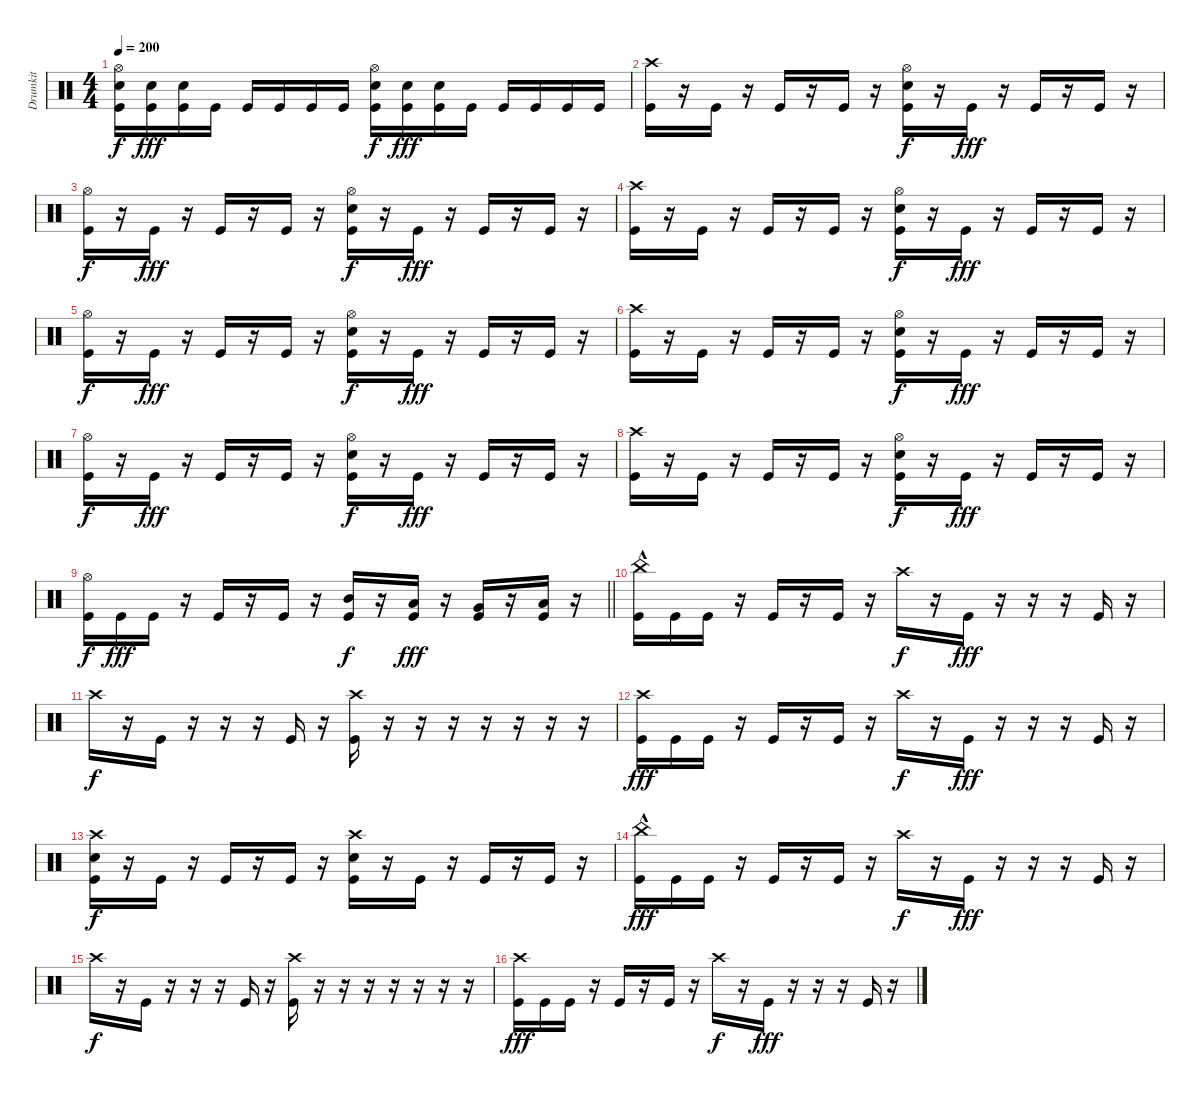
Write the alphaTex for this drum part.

\track ("Drumkit" "Drumkit") {instrument percussion}
\staff {score}
\articulation defaults
\ts (4 4)
\tempo 200
\clef neutral
\ks c
("Hi-Hat (open)" "Snare (hit) 2" "Kick (hit)").16{dy f} ("Snare (hit) 2" "Kick (hit)").16{dy fff} ("Snare (hit) 2" "Kick (hit)").16 "Kick (hit)".16 "Kick (hit)".16 "Kick (hit)".16 "Kick (hit)".16 "Kick (hit)".16 ("Hi-Hat (open)" "Snare (hit) 2" "Kick (hit)").16{dy f} ("Snare (hit) 2" "Kick (hit)").16{dy fff} ("Snare (hit) 2" "Kick (hit)").16 "Kick (hit)".16 "Kick (hit)".16 "Kick (hit)".16 "Kick (hit)".16 "Kick (hit)".16 |
("Crash high (hit)" "Kick (hit)").16 r.16 "Kick (hit)".16 r.16 "Kick (hit)".16 r.16 "Kick (hit)".16 r.16 ("Hi-Hat (open)" "Snare (hit) 2" "Kick (hit)").16{dy f} r.16 "Kick (hit)".16{dy fff} r.16 "Kick (hit)".16 r.16 "Kick (hit)".16 r.16 |
("Hi-Hat (open)" "Kick (hit)").16{dy f} r.16 "Kick (hit)".16{dy fff} r.16 "Kick (hit)".16 r.16 "Kick (hit)".16 r.16 ("Hi-Hat (open)" "Snare (hit) 2" "Kick (hit)").16{dy f} r.16 "Kick (hit)".16{dy fff} r.16 "Kick (hit)".16 r.16 "Kick (hit)".16 r.16 |
("Crash high (hit)" "Kick (hit)").16 r.16 "Kick (hit)".16 r.16 "Kick (hit)".16 r.16 "Kick (hit)".16 r.16 ("Hi-Hat (open)" "Snare (hit) 2" "Kick (hit)").16{dy f} r.16 "Kick (hit)".16{dy fff} r.16 "Kick (hit)".16 r.16 "Kick (hit)".16 r.16 |
("Hi-Hat (open)" "Kick (hit)").16{dy f} r.16 "Kick (hit)".16{dy fff} r.16 "Kick (hit)".16 r.16 "Kick (hit)".16 r.16 ("Hi-Hat (open)" "Snare (hit) 2" "Kick (hit)").16{dy f} r.16 "Kick (hit)".16{dy fff} r.16 "Kick (hit)".16 r.16 "Kick (hit)".16 r.16 |
("Crash high (hit)" "Kick (hit)").16 r.16 "Kick (hit)".16 r.16 "Kick (hit)".16 r.16 "Kick (hit)".16 r.16 ("Hi-Hat (open)" "Snare (hit) 2" "Kick (hit)").16{dy f} r.16 "Kick (hit)".16{dy fff} r.16 "Kick (hit)".16 r.16 "Kick (hit)".16 r.16 |
("Hi-Hat (open)" "Kick (hit)").16{dy f} r.16 "Kick (hit)".16{dy fff} r.16 "Kick (hit)".16 r.16 "Kick (hit)".16 r.16 ("Hi-Hat (open)" "Snare (hit) 2" "Kick (hit)").16{dy f} r.16 "Kick (hit)".16{dy fff} r.16 "Kick (hit)".16 r.16 "Kick (hit)".16 r.16 |
("Crash high (hit)" "Kick (hit)").16 r.16 "Kick (hit)".16 r.16 "Kick (hit)".16 r.16 "Kick (hit)".16 r.16 ("Hi-Hat (open)" "Snare (hit) 2" "Kick (hit)").16{dy f} r.16 "Kick (hit)".16{dy fff} r.16 "Kick (hit)".16 r.16 "Kick (hit)".16 r.16 |
\barLineRight lightlight
("Hi-Hat (open)" "Kick (hit)").16{dy f} "Kick (hit)".16{dy fff} "Kick (hit)".16 r.16 "Kick (hit)".16 r.16 "Kick (hit)".16 r.16 ("Mid Tom (hit)" "Kick (hit)").16{dy f} r.16 ("Low Tom (hit)" "Kick (hit)").16{dy fff} r.16 ("Very Low Tom (hit)" "Kick (hit)").16 r.16 ("Low Floor Tom (hit)" "Kick (hit)").16 r.16 |
("China (hit)" "Kick (hit)"{hac}).16 "Kick (hit)".16 "Kick (hit)".16 r.16 "Kick (hit)".16 r.16 "Kick (hit)".16 r.16 "Crash high (hit)".16{dy f} r.16 "Kick (hit)".16{dy fff} r.16 r.16 r.16 "Kick (hit)".16 r.16 |
"Crash high (hit)".16{dy f} r.16 "Kick (hit)".16 r.16 r.16 r.16 "Kick (hit)".16 r.16 ("Crash high (hit)" "Kick (hit)").16 r.16 r.16 r.16 r.16 r.16 r.16 r.16 |
("Crash high (hit)" "Kick (hit)").16{dy fff} "Kick (hit)".16 "Kick (hit)".16 r.16 "Kick (hit)".16 r.16 "Kick (hit)".16 r.16 "Crash high (hit)".16{dy f} r.16 "Kick (hit)".16{dy fff} r.16 r.16 r.16 "Kick (hit)".16 r.16 |
("Crash high (hit)" "Snare (hit) 2" "Kick (hit)").16{dy f} r.16 "Kick (hit)".16 r.16 "Kick (hit)".16 r.16 "Kick (hit)".16 r.16 ("Crash high (hit)" "Snare (hit) 2" "Kick (hit)").16 r.16 "Kick (hit)".16 r.16 "Kick (hit)".16 r.16 "Kick (hit)".16 r.16 |
("China (hit)" "Kick (hit)"{hac}).16{dy fff} "Kick (hit)".16 "Kick (hit)".16 r.16 "Kick (hit)".16 r.16 "Kick (hit)".16 r.16 "Crash high (hit)".16{dy f} r.16 "Kick (hit)".16{dy fff} r.16 r.16 r.16 "Kick (hit)".16 r.16 |
"Crash high (hit)".16{dy f} r.16 "Kick (hit)".16 r.16 r.16 r.16 "Kick (hit)".16 r.16 ("Crash high (hit)" "Kick (hit)").16 r.16 r.16 r.16 r.16 r.16 r.16 r.16 |
("Crash high (hit)" "Kick (hit)").16{dy fff} "Kick (hit)".16 "Kick (hit)".16 r.16 "Kick (hit)".16 r.16 "Kick (hit)".16 r.16 "Crash high (hit)".16{dy f} r.16 "Kick (hit)".16{dy fff} r.16 r.16 r.16 "Kick (hit)".16 r.16
